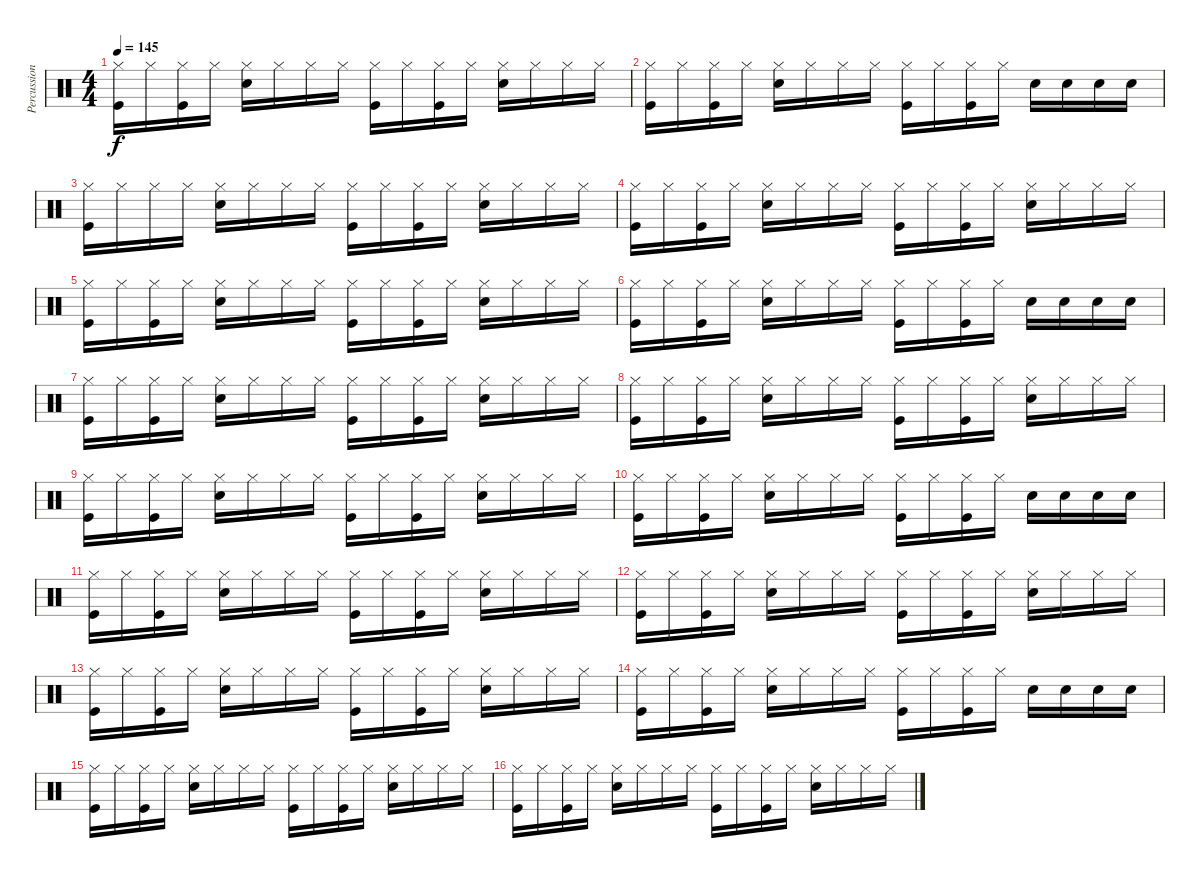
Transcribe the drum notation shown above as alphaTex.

\track ("Percussion" "Percussion") {instrument percussion}
\staff {score}
\articulation defaults
\ts (4 4)
\tempo 145
\clef neutral
\ks c
("Kick (hit)" "Hi-Hat (closed)").16{dy f} "Hi-Hat (closed)".16 ("Kick (hit)" "Hi-Hat (closed)").16 "Hi-Hat (closed)".16 ("Hi-Hat (closed)" "Snare (hit) 2").16 "Hi-Hat (closed)".16 "Hi-Hat (closed)".16 "Hi-Hat (closed)".16 ("Kick (hit)" "Hi-Hat (closed)").16 "Hi-Hat (closed)".16 ("Kick (hit)" "Hi-Hat (closed)").16 "Hi-Hat (closed)".16 ("Hi-Hat (closed)" "Snare (hit) 2").16 "Hi-Hat (closed)".16 "Hi-Hat (closed)".16 "Hi-Hat (closed)".16 |
("Kick (hit)" "Hi-Hat (closed)").16 "Hi-Hat (closed)".16 ("Kick (hit)" "Hi-Hat (closed)").16 "Hi-Hat (closed)".16 ("Hi-Hat (closed)" "Snare (hit) 2").16 "Hi-Hat (closed)".16 "Hi-Hat (closed)".16 "Hi-Hat (closed)".16 ("Kick (hit)" "Hi-Hat (closed)").16 "Hi-Hat (closed)".16 ("Kick (hit)" "Hi-Hat (closed)").16 "Hi-Hat (closed)".16 "Snare (hit) 2".16 "Snare (hit) 2".16 "Snare (hit) 2".16 "Snare (hit) 2".16 |
("Kick (hit)" "Hi-Hat (closed)").16 "Hi-Hat (closed)".16 "Hi-Hat (closed)".16 "Hi-Hat (closed)".16 ("Hi-Hat (closed)" "Snare (hit) 2").16 "Hi-Hat (closed)".16 "Hi-Hat (closed)".16 "Hi-Hat (closed)".16 ("Kick (hit)" "Hi-Hat (closed)").16 "Hi-Hat (closed)".16 ("Kick (hit)" "Hi-Hat (closed)").16 "Hi-Hat (closed)".16 ("Hi-Hat (closed)" "Snare (hit) 2").16 "Hi-Hat (closed)".16 "Hi-Hat (closed)".16 "Hi-Hat (closed)".16 |
("Kick (hit)" "Hi-Hat (closed)").16 "Hi-Hat (closed)".16 ("Kick (hit)" "Hi-Hat (closed)").16 "Hi-Hat (closed)".16 ("Hi-Hat (closed)" "Snare (hit) 2").16 "Hi-Hat (closed)".16 "Hi-Hat (closed)".16 "Hi-Hat (closed)".16 ("Kick (hit)" "Hi-Hat (closed)").16 "Hi-Hat (closed)".16 ("Kick (hit)" "Hi-Hat (closed)").16 "Hi-Hat (closed)".16 ("Hi-Hat (closed)" "Snare (hit) 2").16 "Hi-Hat (closed)".16 "Hi-Hat (closed)".16 "Hi-Hat (closed)".16 |
("Kick (hit)" "Hi-Hat (closed)").16 "Hi-Hat (closed)".16 ("Kick (hit)" "Hi-Hat (closed)").16 "Hi-Hat (closed)".16 ("Hi-Hat (closed)" "Snare (hit) 2").16 "Hi-Hat (closed)".16 "Hi-Hat (closed)".16 "Hi-Hat (closed)".16 ("Kick (hit)" "Hi-Hat (closed)").16 "Hi-Hat (closed)".16 ("Kick (hit)" "Hi-Hat (closed)").16 "Hi-Hat (closed)".16 ("Hi-Hat (closed)" "Snare (hit) 2").16 "Hi-Hat (closed)".16 "Hi-Hat (closed)".16 "Hi-Hat (closed)".16 |
("Kick (hit)" "Hi-Hat (closed)").16 "Hi-Hat (closed)".16 ("Kick (hit)" "Hi-Hat (closed)").16 "Hi-Hat (closed)".16 ("Hi-Hat (closed)" "Snare (hit) 2").16 "Hi-Hat (closed)".16 "Hi-Hat (closed)".16 "Hi-Hat (closed)".16 ("Kick (hit)" "Hi-Hat (closed)").16 "Hi-Hat (closed)".16 ("Kick (hit)" "Hi-Hat (closed)").16 "Hi-Hat (closed)".16 "Snare (hit) 2".16 "Snare (hit) 2".16 "Snare (hit) 2".16 "Snare (hit) 2".16 |
("Kick (hit)" "Hi-Hat (closed)").16 "Hi-Hat (closed)".16 ("Kick (hit)" "Hi-Hat (closed)").16 "Hi-Hat (closed)".16 ("Hi-Hat (closed)" "Snare (hit) 2").16 "Hi-Hat (closed)".16 "Hi-Hat (closed)".16 "Hi-Hat (closed)".16 ("Kick (hit)" "Hi-Hat (closed)").16 "Hi-Hat (closed)".16 ("Kick (hit)" "Hi-Hat (closed)").16 "Hi-Hat (closed)".16 ("Hi-Hat (closed)" "Snare (hit) 2").16 "Hi-Hat (closed)".16 "Hi-Hat (closed)".16 "Hi-Hat (closed)".16 |
("Kick (hit)" "Hi-Hat (closed)").16 "Hi-Hat (closed)".16 ("Kick (hit)" "Hi-Hat (closed)").16 "Hi-Hat (closed)".16 ("Hi-Hat (closed)" "Snare (hit) 2").16 "Hi-Hat (closed)".16 "Hi-Hat (closed)".16 "Hi-Hat (closed)".16 ("Kick (hit)" "Hi-Hat (closed)").16 "Hi-Hat (closed)".16 ("Kick (hit)" "Hi-Hat (closed)").16 "Hi-Hat (closed)".16 ("Hi-Hat (closed)" "Snare (hit) 2").16 "Hi-Hat (closed)".16 "Hi-Hat (closed)".16 "Hi-Hat (closed)".16 |
("Kick (hit)" "Hi-Hat (closed)").16 "Hi-Hat (closed)".16 ("Kick (hit)" "Hi-Hat (closed)").16 "Hi-Hat (closed)".16 ("Hi-Hat (closed)" "Snare (hit) 2").16 "Hi-Hat (closed)".16 "Hi-Hat (closed)".16 "Hi-Hat (closed)".16 ("Kick (hit)" "Hi-Hat (closed)").16 "Hi-Hat (closed)".16 ("Kick (hit)" "Hi-Hat (closed)").16 "Hi-Hat (closed)".16 ("Hi-Hat (closed)" "Snare (hit) 2").16 "Hi-Hat (closed)".16 "Hi-Hat (closed)".16 "Hi-Hat (closed)".16 |
("Kick (hit)" "Hi-Hat (closed)").16 "Hi-Hat (closed)".16 ("Kick (hit)" "Hi-Hat (closed)").16 "Hi-Hat (closed)".16 ("Hi-Hat (closed)" "Snare (hit) 2").16 "Hi-Hat (closed)".16 "Hi-Hat (closed)".16 "Hi-Hat (closed)".16 ("Kick (hit)" "Hi-Hat (closed)").16 "Hi-Hat (closed)".16 ("Kick (hit)" "Hi-Hat (closed)").16 "Hi-Hat (closed)".16 "Snare (hit) 2".16 "Snare (hit) 2".16 "Snare (hit) 2".16 "Snare (hit) 2".16 |
("Kick (hit)" "Hi-Hat (closed)").16 "Hi-Hat (closed)".16 ("Kick (hit)" "Hi-Hat (closed)").16 "Hi-Hat (closed)".16 ("Hi-Hat (closed)" "Snare (hit) 2").16 "Hi-Hat (closed)".16 "Hi-Hat (closed)".16 "Hi-Hat (closed)".16 ("Kick (hit)" "Hi-Hat (closed)").16 "Hi-Hat (closed)".16 ("Kick (hit)" "Hi-Hat (closed)").16 "Hi-Hat (closed)".16 ("Hi-Hat (closed)" "Snare (hit) 2").16 "Hi-Hat (closed)".16 "Hi-Hat (closed)".16 "Hi-Hat (closed)".16 |
("Kick (hit)" "Hi-Hat (closed)").16 "Hi-Hat (closed)".16 ("Kick (hit)" "Hi-Hat (closed)").16 "Hi-Hat (closed)".16 ("Hi-Hat (closed)" "Snare (hit) 2").16 "Hi-Hat (closed)".16 "Hi-Hat (closed)".16 "Hi-Hat (closed)".16 ("Kick (hit)" "Hi-Hat (closed)").16 "Hi-Hat (closed)".16 ("Kick (hit)" "Hi-Hat (closed)").16 "Hi-Hat (closed)".16 ("Hi-Hat (closed)" "Snare (hit) 2").16 "Hi-Hat (closed)".16 "Hi-Hat (closed)".16 "Hi-Hat (closed)".16 |
("Kick (hit)" "Hi-Hat (closed)").16 "Hi-Hat (closed)".16 ("Kick (hit)" "Hi-Hat (closed)").16 "Hi-Hat (closed)".16 ("Hi-Hat (closed)" "Snare (hit) 2").16 "Hi-Hat (closed)".16 "Hi-Hat (closed)".16 "Hi-Hat (closed)".16 ("Kick (hit)" "Hi-Hat (closed)").16 "Hi-Hat (closed)".16 ("Kick (hit)" "Hi-Hat (closed)").16 "Hi-Hat (closed)".16 ("Hi-Hat (closed)" "Snare (hit) 2").16 "Hi-Hat (closed)".16 "Hi-Hat (closed)".16 "Hi-Hat (closed)".16 |
("Kick (hit)" "Hi-Hat (closed)").16 "Hi-Hat (closed)".16 ("Kick (hit)" "Hi-Hat (closed)").16 "Hi-Hat (closed)".16 ("Hi-Hat (closed)" "Snare (hit) 2").16 "Hi-Hat (closed)".16 "Hi-Hat (closed)".16 "Hi-Hat (closed)".16 ("Kick (hit)" "Hi-Hat (closed)").16 "Hi-Hat (closed)".16 ("Kick (hit)" "Hi-Hat (closed)").16 "Hi-Hat (closed)".16 "Snare (hit) 2".16 "Snare (hit) 2".16 "Snare (hit) 2".16 "Snare (hit) 2".16 |
("Kick (hit)" "Hi-Hat (closed)").16 "Hi-Hat (closed)".16 ("Kick (hit)" "Hi-Hat (closed)").16 "Hi-Hat (closed)".16 ("Hi-Hat (closed)" "Snare (hit) 2").16 "Hi-Hat (closed)".16 "Hi-Hat (closed)".16 "Hi-Hat (closed)".16 ("Kick (hit)" "Hi-Hat (closed)").16 "Hi-Hat (closed)".16 ("Kick (hit)" "Hi-Hat (closed)").16 "Hi-Hat (closed)".16 ("Hi-Hat (closed)" "Snare (hit) 2").16 "Hi-Hat (closed)".16 "Hi-Hat (closed)".16 "Hi-Hat (closed)".16 |
("Kick (hit)" "Hi-Hat (closed)").16 "Hi-Hat (closed)".16 ("Kick (hit)" "Hi-Hat (closed)").16 "Hi-Hat (closed)".16 ("Hi-Hat (closed)" "Snare (hit) 2").16 "Hi-Hat (closed)".16 "Hi-Hat (closed)".16 "Hi-Hat (closed)".16 ("Kick (hit)" "Hi-Hat (closed)").16 "Hi-Hat (closed)".16 ("Kick (hit)" "Hi-Hat (closed)").16 "Hi-Hat (closed)".16 ("Hi-Hat (closed)" "Snare (hit) 2").16 "Hi-Hat (closed)".16 "Hi-Hat (closed)".16 "Hi-Hat (closed)".16
